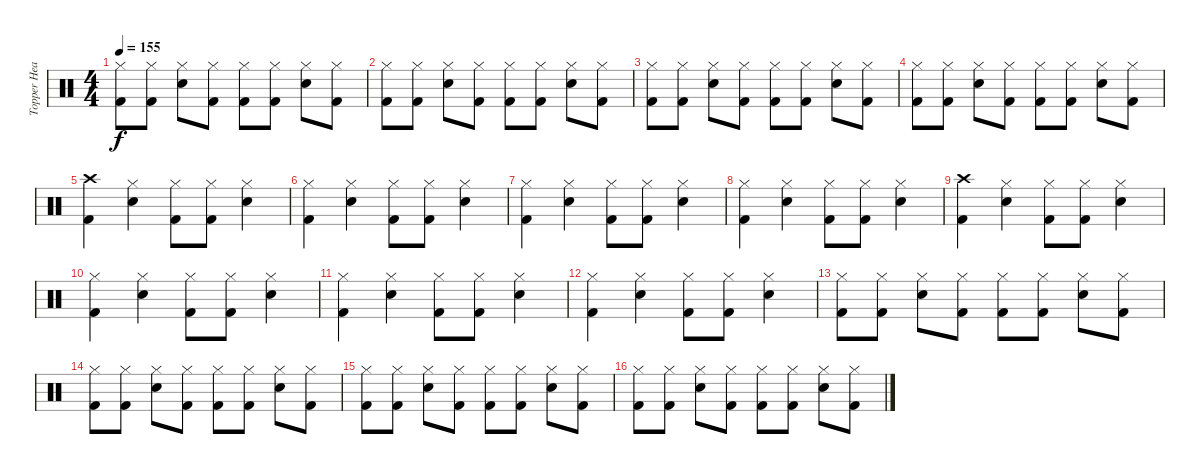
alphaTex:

\track ("Topper Headon - Drums" "Topper Hea") {instrument percussion}
\staff {score}
\articulation defaults
\ts (4 4)
\tempo 155
\clef neutral
\ks c
("Kick (hit) 2" "Hi-Hat (closed)").8{dy f} ("Kick (hit) 2" "Hi-Hat (closed)").8 ("Snare (hit) 2" "Hi-Hat (closed)").8 ("Kick (hit) 2" "Hi-Hat (closed)").8 ("Kick (hit) 2" "Hi-Hat (closed)").8 ("Kick (hit) 2" "Hi-Hat (closed)").8 ("Snare (hit) 2" "Hi-Hat (closed)").8 ("Kick (hit) 2" "Hi-Hat (closed)").8 |
("Kick (hit) 2" "Hi-Hat (closed)").8 ("Kick (hit) 2" "Hi-Hat (closed)").8 ("Snare (hit) 2" "Hi-Hat (closed)").8 ("Kick (hit) 2" "Hi-Hat (closed)").8 ("Kick (hit) 2" "Hi-Hat (closed)").8 ("Kick (hit) 2" "Hi-Hat (closed)").8 ("Snare (hit) 2" "Hi-Hat (closed)").8 ("Kick (hit) 2" "Hi-Hat (closed)").8 |
("Kick (hit) 2" "Hi-Hat (closed)").8 ("Kick (hit) 2" "Hi-Hat (closed)").8 ("Snare (hit) 2" "Hi-Hat (closed)").8 ("Kick (hit) 2" "Hi-Hat (closed)").8 ("Kick (hit) 2" "Hi-Hat (closed)").8 ("Kick (hit) 2" "Hi-Hat (closed)").8 ("Snare (hit) 2" "Hi-Hat (closed)").8 ("Kick (hit) 2" "Hi-Hat (closed)").8 |
("Kick (hit) 2" "Hi-Hat (closed)").8 ("Kick (hit) 2" "Hi-Hat (closed)").8 ("Snare (hit) 2" "Hi-Hat (closed)").8 ("Kick (hit) 2" "Hi-Hat (closed)").8 ("Kick (hit) 2" "Hi-Hat (closed)").8 ("Kick (hit) 2" "Hi-Hat (closed)").8 ("Snare (hit) 2" "Hi-Hat (closed)").8 ("Kick (hit) 2" "Hi-Hat (closed)").8 |
("Kick (hit) 2" "Crash high (hit)").4 ("Snare (hit) 2" "Hi-Hat (closed)").4 ("Kick (hit) 2" "Hi-Hat (closed)").8 ("Kick (hit) 2" "Hi-Hat (closed)").8 ("Snare (hit) 2" "Hi-Hat (closed)").4 |
("Kick (hit) 2" "Hi-Hat (closed)").4 ("Snare (hit) 2" "Hi-Hat (closed)").4 ("Kick (hit) 2" "Hi-Hat (closed)").8 ("Kick (hit) 2" "Hi-Hat (closed)").8 ("Snare (hit) 2" "Hi-Hat (closed)").4 |
("Kick (hit) 2" "Hi-Hat (closed)").4 ("Snare (hit) 2" "Hi-Hat (closed)").4 ("Kick (hit) 2" "Hi-Hat (closed)").8 ("Kick (hit) 2" "Hi-Hat (closed)").8 ("Snare (hit) 2" "Hi-Hat (closed)").4 |
("Kick (hit) 2" "Hi-Hat (closed)").4 ("Snare (hit) 2" "Hi-Hat (closed)").4 ("Kick (hit) 2" "Hi-Hat (closed)").8 ("Kick (hit) 2" "Hi-Hat (closed)").8 ("Snare (hit) 2" "Hi-Hat (closed)").4 |
("Kick (hit) 2" "Crash high (hit)").4 ("Snare (hit) 2" "Hi-Hat (closed)").4 ("Kick (hit) 2" "Hi-Hat (closed)").8 ("Kick (hit) 2" "Hi-Hat (closed)").8 ("Snare (hit) 2" "Hi-Hat (closed)").4 |
("Kick (hit) 2" "Hi-Hat (closed)").4 ("Snare (hit) 2" "Hi-Hat (closed)").4 ("Kick (hit) 2" "Hi-Hat (closed)").8 ("Kick (hit) 2" "Hi-Hat (closed)").8 ("Snare (hit) 2" "Hi-Hat (closed)").4 |
("Kick (hit) 2" "Hi-Hat (closed)").4 ("Snare (hit) 2" "Hi-Hat (closed)").4 ("Kick (hit) 2" "Hi-Hat (closed)").8 ("Kick (hit) 2" "Hi-Hat (closed)").8 ("Snare (hit) 2" "Hi-Hat (closed)").4 |
("Kick (hit) 2" "Hi-Hat (closed)").4 ("Snare (hit) 2" "Hi-Hat (closed)").4 ("Kick (hit) 2" "Hi-Hat (closed)").8 ("Kick (hit) 2" "Hi-Hat (closed)").8 ("Snare (hit) 2" "Hi-Hat (closed)").4 |
("Kick (hit) 2" "Hi-Hat (closed)").8 ("Kick (hit) 2" "Hi-Hat (closed)").8 ("Snare (hit) 2" "Hi-Hat (closed)").8 ("Kick (hit) 2" "Hi-Hat (closed)").8 ("Kick (hit) 2" "Hi-Hat (closed)").8 ("Kick (hit) 2" "Hi-Hat (closed)").8 ("Snare (hit) 2" "Hi-Hat (closed)").8 ("Kick (hit) 2" "Hi-Hat (closed)").8 |
("Kick (hit) 2" "Hi-Hat (closed)").8 ("Kick (hit) 2" "Hi-Hat (closed)").8 ("Snare (hit) 2" "Hi-Hat (closed)").8 ("Kick (hit) 2" "Hi-Hat (closed)").8 ("Kick (hit) 2" "Hi-Hat (closed)").8 ("Kick (hit) 2" "Hi-Hat (closed)").8 ("Snare (hit) 2" "Hi-Hat (closed)").8 ("Kick (hit) 2" "Hi-Hat (closed)").8 |
("Kick (hit) 2" "Hi-Hat (closed)").8 ("Kick (hit) 2" "Hi-Hat (closed)").8 ("Snare (hit) 2" "Hi-Hat (closed)").8 ("Kick (hit) 2" "Hi-Hat (closed)").8 ("Kick (hit) 2" "Hi-Hat (closed)").8 ("Kick (hit) 2" "Hi-Hat (closed)").8 ("Snare (hit) 2" "Hi-Hat (closed)").8 ("Kick (hit) 2" "Hi-Hat (closed)").8 |
("Kick (hit) 2" "Hi-Hat (closed)").8 ("Kick (hit) 2" "Hi-Hat (closed)").8 ("Snare (hit) 2" "Hi-Hat (closed)").8 ("Kick (hit) 2" "Hi-Hat (closed)").8 ("Kick (hit) 2" "Hi-Hat (closed)").8 ("Kick (hit) 2" "Hi-Hat (closed)").8 ("Snare (hit) 2" "Hi-Hat (closed)").8 ("Kick (hit) 2" "Hi-Hat (closed)").8
